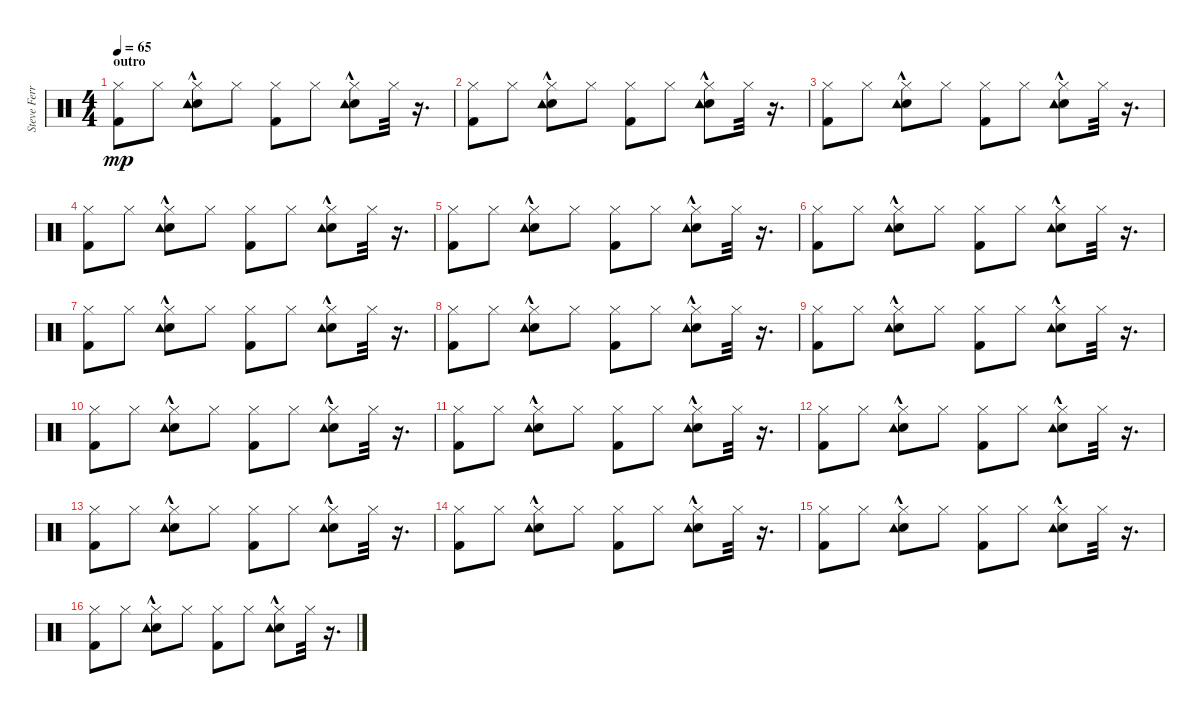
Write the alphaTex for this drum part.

\track ("Steve Ferrone & Ray Cooper" "Steve Ferr") {instrument percussion}
\staff {score}
\articulation defaults
\ts (4 4)
\section ("" "outro")
\tempo 65
\clef neutral
\ks c
("Kick (hit) 2" "Hi-Hat (closed)").8{dy mp} "Hi-Hat (closed)".8 ("Hi-Hat (closed)" "Snare (hit) 2"{hac} "Tambourine (hit)"{hac}).8 "Hi-Hat (closed)".8 ("Kick (hit) 2" "Hi-Hat (closed)").8 "Hi-Hat (closed)".8 ("Hi-Hat (closed)" "Snare (hit) 2" "Tambourine (hit)"{hac}).8 "Hi-Hat (closed)".32 r.16{d} |
("Kick (hit) 2" "Hi-Hat (closed)").8 "Hi-Hat (closed)".8 ("Hi-Hat (closed)" "Snare (hit) 2"{hac} "Tambourine (hit)"{hac}).8 "Hi-Hat (closed)".8 ("Kick (hit) 2" "Hi-Hat (closed)").8 "Hi-Hat (closed)".8 ("Hi-Hat (closed)" "Snare (hit) 2" "Tambourine (hit)"{hac}).8 "Hi-Hat (closed)".32 r.16{d} |
("Kick (hit) 2" "Hi-Hat (closed)").8 "Hi-Hat (closed)".8 ("Hi-Hat (closed)" "Snare (hit) 2"{hac} "Tambourine (hit)"{hac}).8 "Hi-Hat (closed)".8 ("Kick (hit) 2" "Hi-Hat (closed)").8 "Hi-Hat (closed)".8 ("Hi-Hat (closed)" "Snare (hit) 2" "Tambourine (hit)"{hac}).8 "Hi-Hat (closed)".32 r.16{d} |
("Kick (hit) 2" "Hi-Hat (closed)").8 "Hi-Hat (closed)".8 ("Hi-Hat (closed)" "Snare (hit) 2"{hac} "Tambourine (hit)"{hac}).8 "Hi-Hat (closed)".8 ("Kick (hit) 2" "Hi-Hat (closed)").8 "Hi-Hat (closed)".8 ("Hi-Hat (closed)" "Snare (hit) 2" "Tambourine (hit)"{hac}).8 "Hi-Hat (closed)".32 r.16{d} |
("Kick (hit) 2" "Hi-Hat (closed)").8 "Hi-Hat (closed)".8 ("Hi-Hat (closed)" "Snare (hit) 2"{hac} "Tambourine (hit)"{hac}).8 "Hi-Hat (closed)".8 ("Kick (hit) 2" "Hi-Hat (closed)").8 "Hi-Hat (closed)".8 ("Hi-Hat (closed)" "Snare (hit) 2" "Tambourine (hit)"{hac}).8 "Hi-Hat (closed)".32 r.16{d} |
("Kick (hit) 2" "Hi-Hat (closed)").8 "Hi-Hat (closed)".8 ("Hi-Hat (closed)" "Snare (hit) 2"{hac} "Tambourine (hit)"{hac}).8 "Hi-Hat (closed)".8 ("Kick (hit) 2" "Hi-Hat (closed)").8 "Hi-Hat (closed)".8 ("Hi-Hat (closed)" "Snare (hit) 2" "Tambourine (hit)"{hac}).8 "Hi-Hat (closed)".32 r.16{d} |
("Kick (hit) 2" "Hi-Hat (closed)").8 "Hi-Hat (closed)".8 ("Hi-Hat (closed)" "Snare (hit) 2"{hac} "Tambourine (hit)"{hac}).8 "Hi-Hat (closed)".8 ("Kick (hit) 2" "Hi-Hat (closed)").8 "Hi-Hat (closed)".8 ("Hi-Hat (closed)" "Snare (hit) 2" "Tambourine (hit)"{hac}).8 "Hi-Hat (closed)".32 r.16{d} |
("Kick (hit) 2" "Hi-Hat (closed)").8 "Hi-Hat (closed)".8 ("Hi-Hat (closed)" "Snare (hit) 2"{hac} "Tambourine (hit)"{hac}).8 "Hi-Hat (closed)".8 ("Kick (hit) 2" "Hi-Hat (closed)").8 "Hi-Hat (closed)".8 ("Hi-Hat (closed)" "Snare (hit) 2" "Tambourine (hit)"{hac}).8 "Hi-Hat (closed)".32 r.16{d} |
("Kick (hit) 2" "Hi-Hat (closed)").8 "Hi-Hat (closed)".8 ("Hi-Hat (closed)" "Snare (hit) 2"{hac} "Tambourine (hit)"{hac}).8 "Hi-Hat (closed)".8 ("Kick (hit) 2" "Hi-Hat (closed)").8 "Hi-Hat (closed)".8 ("Hi-Hat (closed)" "Snare (hit) 2" "Tambourine (hit)"{hac}).8 "Hi-Hat (closed)".32 r.16{d} |
("Kick (hit) 2" "Hi-Hat (closed)").8 "Hi-Hat (closed)".8 ("Hi-Hat (closed)" "Snare (hit) 2"{hac} "Tambourine (hit)"{hac}).8 "Hi-Hat (closed)".8 ("Kick (hit) 2" "Hi-Hat (closed)").8 "Hi-Hat (closed)".8 ("Hi-Hat (closed)" "Snare (hit) 2" "Tambourine (hit)"{hac}).8 "Hi-Hat (closed)".32 r.16{d} |
("Kick (hit) 2" "Hi-Hat (closed)").8 "Hi-Hat (closed)".8 ("Hi-Hat (closed)" "Snare (hit) 2"{hac} "Tambourine (hit)"{hac}).8 "Hi-Hat (closed)".8 ("Kick (hit) 2" "Hi-Hat (closed)").8 "Hi-Hat (closed)".8 ("Hi-Hat (closed)" "Snare (hit) 2" "Tambourine (hit)"{hac}).8 "Hi-Hat (closed)".32 r.16{d} |
("Kick (hit) 2" "Hi-Hat (closed)").8 "Hi-Hat (closed)".8 ("Hi-Hat (closed)" "Snare (hit) 2"{hac} "Tambourine (hit)"{hac}).8 "Hi-Hat (closed)".8 ("Kick (hit) 2" "Hi-Hat (closed)").8 "Hi-Hat (closed)".8 ("Hi-Hat (closed)" "Snare (hit) 2" "Tambourine (hit)"{hac}).8 "Hi-Hat (closed)".32 r.16{d} |
("Kick (hit) 2" "Hi-Hat (closed)").8 "Hi-Hat (closed)".8 ("Hi-Hat (closed)" "Snare (hit) 2"{hac} "Tambourine (hit)"{hac}).8 "Hi-Hat (closed)".8 ("Kick (hit) 2" "Hi-Hat (closed)").8 "Hi-Hat (closed)".8 ("Hi-Hat (closed)" "Snare (hit) 2" "Tambourine (hit)"{hac}).8 "Hi-Hat (closed)".32 r.16{d} |
("Kick (hit) 2" "Hi-Hat (closed)").8 "Hi-Hat (closed)".8 ("Hi-Hat (closed)" "Snare (hit) 2"{hac} "Tambourine (hit)"{hac}).8 "Hi-Hat (closed)".8 ("Kick (hit) 2" "Hi-Hat (closed)").8 "Hi-Hat (closed)".8 ("Hi-Hat (closed)" "Snare (hit) 2" "Tambourine (hit)"{hac}).8 "Hi-Hat (closed)".32 r.16{d} |
("Kick (hit) 2" "Hi-Hat (closed)").8 "Hi-Hat (closed)".8 ("Hi-Hat (closed)" "Snare (hit) 2"{hac} "Tambourine (hit)"{hac}).8 "Hi-Hat (closed)".8 ("Kick (hit) 2" "Hi-Hat (closed)").8 "Hi-Hat (closed)".8 ("Hi-Hat (closed)" "Snare (hit) 2" "Tambourine (hit)"{hac}).8 "Hi-Hat (closed)".32 r.16{d} |
("Kick (hit) 2" "Hi-Hat (closed)").8 "Hi-Hat (closed)".8 ("Hi-Hat (closed)" "Snare (hit) 2"{hac} "Tambourine (hit)"{hac}).8 "Hi-Hat (closed)".8 ("Kick (hit) 2" "Hi-Hat (closed)").8 "Hi-Hat (closed)".8 ("Hi-Hat (closed)" "Snare (hit) 2" "Tambourine (hit)"{hac}).8 "Hi-Hat (closed)".32 r.16{d}
